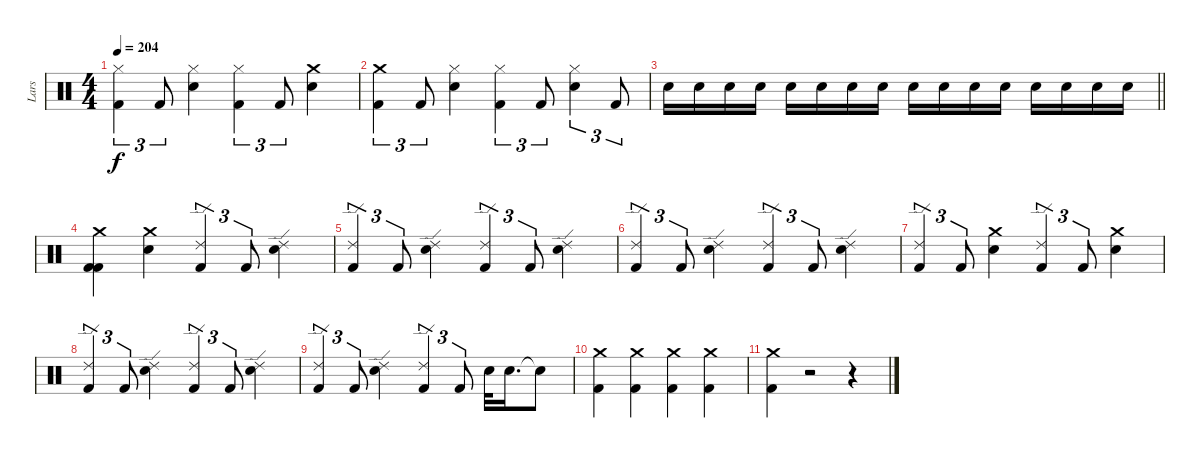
\track ("Lars" "Lars") {instrument percussion}
\staff {score}
\articulation defaults
\ts (4 4)
\tempo 204
\clef neutral
\ks c
("Hi-Hat (closed)" "Kick (hit) 2").4{tu (3 2) dy f} "Kick (hit) 2".8{tu (3 2)} ("Snare (hit) 2" "Hi-Hat (closed)").4 ("Hi-Hat (closed)" "Kick (hit) 2").4{tu (3 2)} "Kick (hit) 2".8{tu (3 2)} ("Crash medium (hit)" "Snare (hit) 2").4 |
("Crash medium (hit)" "Kick (hit) 2").4{tu (3 2)} "Kick (hit) 2".8{tu (3 2)} ("Snare (hit) 2" "Hi-Hat (closed)").4 ("Hi-Hat (closed)" "Kick (hit) 2").4{tu (3 2)} "Kick (hit) 2".8{tu (3 2)} ("Snare (hit) 2" "Hi-Hat (closed)").4{tu (3 2)} "Kick (hit) 2".8{tu (3 2)} |
\barLineRight lightlight "Snare (hit) 2".16 "Snare (hit) 2".16 "Snare (hit) 2".16 "Snare (hit) 2".16 "Snare (hit) 2".16 "Snare (hit) 2".16 "Snare (hit) 2".16 "Snare (hit) 2".16 "Snare (hit) 2".16 "Snare (hit) 2".16 "Snare (hit) 2".16 "Snare (hit) 2".16 "Snare (hit) 2".16 "Snare (hit) 2".16 "Snare (hit) 2".16 "Snare (hit) 2".16
|
("Kick (hit) 2" "Kick (hit) 2" "Crash medium (hit)").4 ("Snare (hit) 2" "Crash medium (hit)").4 ("Kick (hit) 2" "Ride (edge) 2").4{tu (3 2)} "Kick (hit) 2".8{tu (3 2)} ("Snare (hit) 2" "Ride (edge) 2").4 |
("Ride (edge) 2" "Kick (hit) 2").4{tu (3 2)} "Kick (hit) 2".8{tu (3 2)} ("Snare (hit) 2" "Ride (edge) 2").4 ("Ride (edge) 2" "Kick (hit) 2").4{tu (3 2)} "Kick (hit) 2".8{tu (3 2)} ("Snare (hit) 2" "Ride (edge) 2").4 |
("Ride (edge) 2" "Kick (hit) 2").4{tu (3 2)} "Kick (hit) 2".8{tu (3 2)} ("Snare (hit) 2" "Ride (edge) 2").4 ("Ride (edge) 2" "Kick (hit) 2").4{tu (3 2)} "Kick (hit) 2".8{tu (3 2)} ("Snare (hit) 2" "Ride (edge) 2").4 |
("Ride (edge) 2" "Kick (hit) 2").4{tu (3 2)} "Kick (hit) 2".8{tu (3 2)} ("Snare (hit) 2" "Crash medium (hit)").4 ("Ride (edge) 2" "Kick (hit) 2").4{tu (3 2)} "Kick (hit) 2".8{tu (3 2)} ("Snare (hit) 2" "Crash medium (hit)").4 |
("Ride (edge) 2" "Kick (hit) 2").4{tu (3 2)} "Kick (hit) 2".8{tu (3 2)} ("Snare (hit) 2" "Ride (edge) 2").4 ("Ride (edge) 2" "Kick (hit) 2").4{tu (3 2)} "Kick (hit) 2".8{tu (3 2)} ("Snare (hit) 2" "Ride (edge) 2").4 |
("Ride (edge) 2" "Kick (hit) 2").4{tu (3 2)} "Kick (hit) 2".8{tu (3 2)} ("Snare (hit) 2" "Ride (edge) 2").4 ("Ride (edge) 2" "Kick (hit) 2").4{tu (3 2)} "Kick (hit) 2".8{tu (3 2)} "Snare (hit) 2".32 "Snare (hit) 2".16{d} "Snare (hit)"{t}.8 |
("Crash medium (hit)" "Kick (hit) 2").4 ("Crash medium (hit)" "Kick (hit) 2").4 ("Crash medium (hit)" "Kick (hit) 2").4 ("Crash medium (hit)" "Kick (hit) 2").4 |
("Crash medium (hit)" "Kick (hit) 2").4 r.2 r.4
